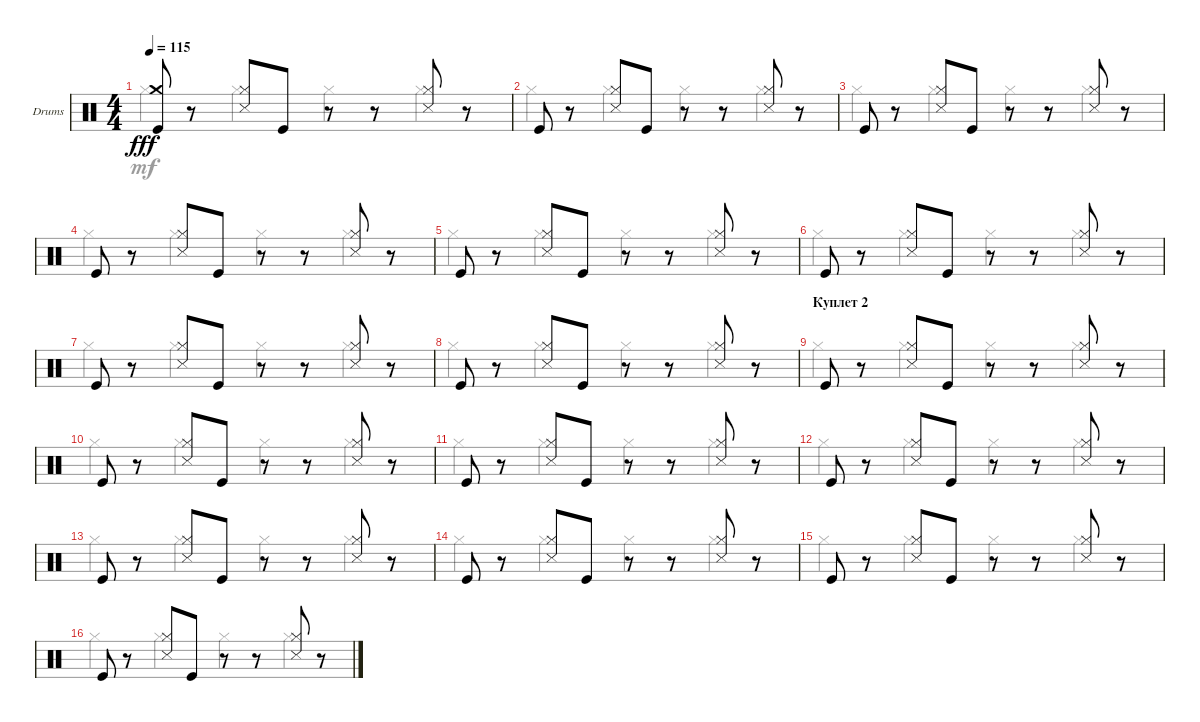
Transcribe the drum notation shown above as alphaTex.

\defaultSystemsLayout 4
\bracketExtendMode groupsimilarinstruments
\firstSystemTrackNameOrientation horizontal
\otherSystemsTrackNameOrientation horizontal
\track ("Миша \"Пчёлка\" Краев (Ударные)" "Drums") {instrument percussion}
\staff {score}
\articulation defaults
\voice
\ts (4 4)
\tempo 115
\clef neutral
\ks c
("Kick (hit)" "Crash medium (hit)").8{dy fff} r.8 ("Hi-Hat (closed)" "Snare (side stick) 3").8 "Kick (hit)".8 r.8 r.8 ("Hi-Hat (closed)" "Snare (side stick) 3").8 r.8 |
"Kick (hit)".8 r.8 ("Snare (side stick) 3" "Hi-Hat (closed)").8 "Kick (hit)".8 r.8 r.8 ("Hi-Hat (closed)" "Snare (side stick) 3").8 r.8 |
"Kick (hit)".8 r.8 ("Hi-Hat (closed)" "Snare (side stick) 3").8 "Kick (hit)".8 r.8 r.8 ("Hi-Hat (closed)" "Snare (side stick) 3").8 r.8 |
"Kick (hit)".8 r.8 ("Hi-Hat (closed)" "Snare (side stick) 3").8 "Kick (hit)".8 r.8 r.8 ("Hi-Hat (closed)" "Snare (side stick) 3").8 r.8 |
"Kick (hit)".8 r.8 ("Hi-Hat (closed)" "Snare (side stick) 3").8 "Kick (hit)".8 r.8 r.8 ("Hi-Hat (closed)" "Snare (side stick) 3").8 r.8 |
"Kick (hit)".8 r.8 ("Hi-Hat (closed)" "Snare (side stick) 3").8 "Kick (hit)".8 r.8 r.8 ("Hi-Hat (closed)" "Snare (side stick) 3").8 r.8 |
"Kick (hit)".8 r.8 ("Hi-Hat (closed)" "Snare (side stick) 3").8 "Kick (hit)".8 r.8 r.8 ("Hi-Hat (closed)" "Snare (side stick) 3").8 r.8 |
"Kick (hit)".8 r.8 ("Hi-Hat (closed)" "Snare (side stick) 3").8 "Kick (hit)".8 r.8 r.8 ("Hi-Hat (closed)" "Snare (side stick) 3").8 r.8 |
\section ("" "Куплет 2")
"Kick (hit)".8 r.8 ("Hi-Hat (closed)" "Snare (side stick) 3").8 "Kick (hit)".8 r.8 r.8 ("Snare (side stick) 3" "Hi-Hat (closed)").8 r.8 |
"Kick (hit)".8 r.8 ("Hi-Hat (closed)" "Snare (side stick) 3").8 "Kick (hit)".8 r.8 r.8 ("Hi-Hat (closed)" "Snare (side stick) 3").8 r.8 |
"Kick (hit)".8 r.8 ("Snare (side stick) 3" "Hi-Hat (closed)").8 "Kick (hit)".8 r.8 r.8 ("Snare (side stick) 3" "Hi-Hat (closed)").8 r.8 |
"Kick (hit)".8 r.8 ("Hi-Hat (closed)" "Snare (side stick) 3").8 "Kick (hit)".8 r.8 r.8 ("Hi-Hat (closed)" "Snare (side stick) 3").8 r.8 |
"Kick (hit)".8 r.8 ("Snare (side stick) 3" "Hi-Hat (closed)").8 "Kick (hit)".8 r.8 r.8 ("Snare (side stick) 3" "Hi-Hat (closed)").8 r.8 |
"Kick (hit)".8 r.8 ("Snare (side stick) 3" "Hi-Hat (closed)").8 "Kick (hit)".8 r.8 r.8 ("Hi-Hat (closed)" "Snare (side stick) 3").8 r.8 |
"Kick (hit)".8 r.8 ("Snare (side stick) 3" "Hi-Hat (closed)").8 "Kick (hit)".8 r.8 r.8 ("Snare (side stick) 3" "Hi-Hat (closed)").8 r.8 |
"Kick (hit)".8 r.8 ("Snare (side stick) 3" "Hi-Hat (closed)").8 "Kick (hit)".8 r.8 r.8 ("Snare (side stick) 3" "Hi-Hat (closed)").8 r.8
\voice
\clef neutral
\ottava regular
\simile none
\ks c "Hi-Hat (closed)".4{dy mf} "Hi-Hat (closed)".4 "Hi-Hat (closed)".4 "Hi-Hat (closed)".4
|
"Hi-Hat (closed)".4 "Hi-Hat (closed)".4 "Hi-Hat (closed)".4 "Hi-Hat (closed)".4 |
"Hi-Hat (closed)".4 "Hi-Hat (closed)".4 "Hi-Hat (closed)".4 "Hi-Hat (closed)".4 |
"Hi-Hat (closed)".4 "Hi-Hat (closed)".4 "Hi-Hat (closed)".4 "Hi-Hat (closed)".4 |
"Hi-Hat (closed)".4 "Hi-Hat (closed)".4 "Hi-Hat (closed)".4 "Hi-Hat (closed)".4 |
"Hi-Hat (closed)".4 "Hi-Hat (closed)".4 "Hi-Hat (closed)".4 "Hi-Hat (closed)".4 |
"Hi-Hat (closed)".4 "Hi-Hat (closed)".4 "Hi-Hat (closed)".4 "Hi-Hat (closed)".4 |
"Hi-Hat (closed)".4 "Hi-Hat (closed)".4 "Hi-Hat (closed)".4 "Hi-Hat (closed)".4 |
"Hi-Hat (closed)".4 "Hi-Hat (closed)".4 "Hi-Hat (closed)".4 "Hi-Hat (closed)".4 |
"Hi-Hat (closed)".4 "Hi-Hat (closed)".4 "Hi-Hat (closed)".4 "Hi-Hat (closed)".4 |
"Hi-Hat (closed)".4 "Hi-Hat (closed)".4 "Hi-Hat (closed)".4 "Hi-Hat (closed)".4 |
"Hi-Hat (closed)".4 "Hi-Hat (closed)".4 "Hi-Hat (closed)".4 "Hi-Hat (closed)".4 |
"Hi-Hat (closed)".4 "Hi-Hat (closed)".4 "Hi-Hat (closed)".4 "Hi-Hat (closed)".4 |
"Hi-Hat (closed)".4 "Hi-Hat (closed)".4 "Hi-Hat (closed)".4 "Hi-Hat (closed)".4 |
"Hi-Hat (closed)".4 "Hi-Hat (closed)".4 "Hi-Hat (closed)".4 "Hi-Hat (closed)".4 |
"Hi-Hat (closed)".4 "Hi-Hat (closed)".4 "Hi-Hat (closed)".4 "Hi-Hat (closed)".4
